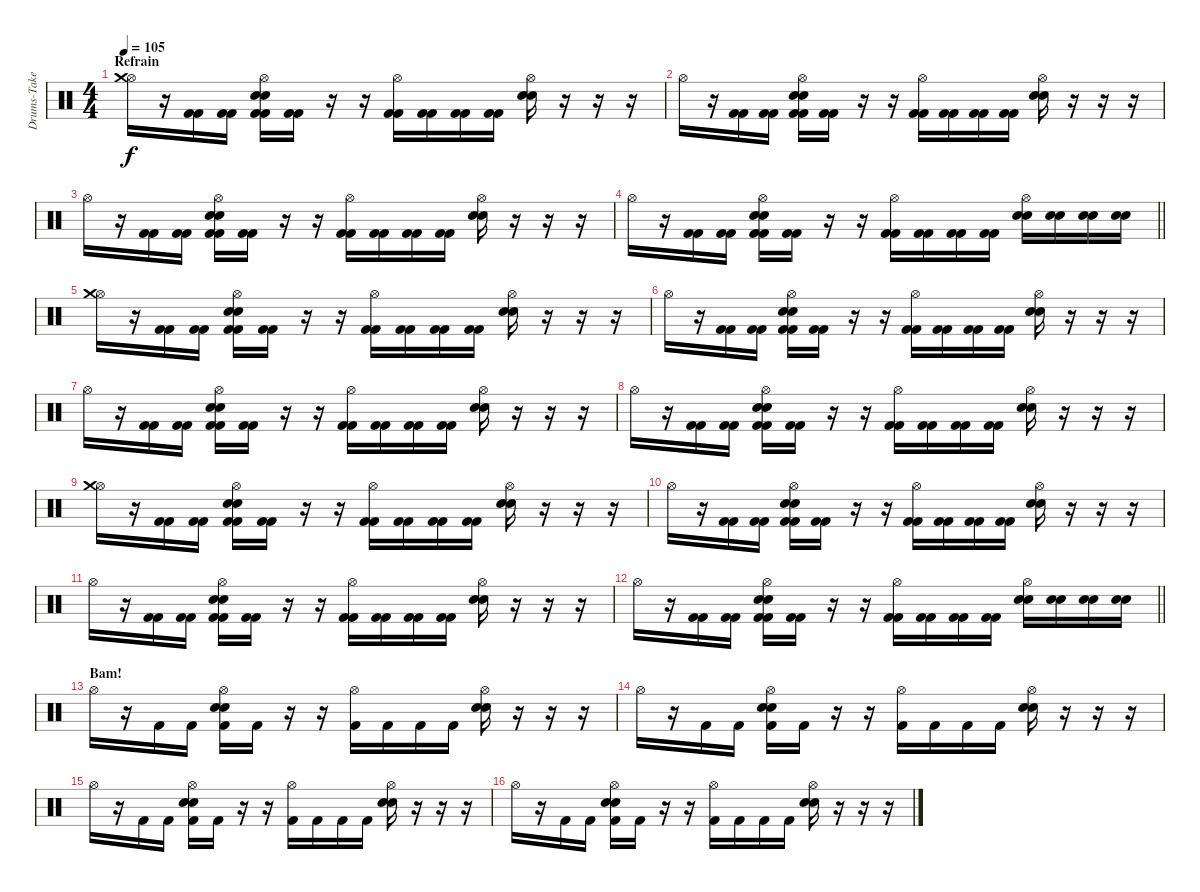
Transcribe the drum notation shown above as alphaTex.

\track ("Drums-Take the midi one!" "Drums-Take") {instrument percussion}
\staff {score}
\articulation defaults
\ts (4 4)
\section ("" "Refrain")
\tempo 105
\clef neutral
\ks c
("Hi-Hat (open)" "Crash medium (hit)").16{dy f} r.16 ("Kick (hit) 2" "Kick (hit) 2").16 ("Kick (hit) 2" "Kick (hit) 2").16 ("Kick (hit) 2" "Kick (hit) 2" "Hi-Hat (open)" "Electric Snare (hit)" "Electric Snare (hit)").16 ("Kick (hit) 2" "Kick (hit) 2").16 r.16 r.16 ("Kick (hit) 2" "Kick (hit) 2" "Hi-Hat (open)").16 ("Kick (hit) 2" "Kick (hit) 2").16 ("Kick (hit) 2" "Kick (hit) 2").16 ("Kick (hit) 2" "Kick (hit) 2").16 ("Hi-Hat (open)" "Electric Snare (hit)" "Electric Snare (hit)").16 r.16 r.16 r.16 |
"Hi-Hat (open)".16 r.16 ("Kick (hit) 2" "Kick (hit) 2").16 ("Kick (hit) 2" "Kick (hit) 2").16 ("Kick (hit) 2" "Kick (hit) 2" "Hi-Hat (open)" "Electric Snare (hit)" "Electric Snare (hit)").16 ("Kick (hit) 2" "Kick (hit) 2").16 r.16 r.16 ("Kick (hit) 2" "Kick (hit) 2" "Hi-Hat (open)").16 ("Kick (hit) 2" "Kick (hit) 2").16 ("Kick (hit) 2" "Kick (hit) 2").16 ("Kick (hit) 2" "Kick (hit) 2").16 ("Hi-Hat (open)" "Electric Snare (hit)" "Electric Snare (hit)").16 r.16 r.16 r.16 |
"Hi-Hat (open)".16 r.16 ("Kick (hit) 2" "Kick (hit) 2").16 ("Kick (hit) 2" "Kick (hit) 2").16 ("Kick (hit) 2" "Kick (hit) 2" "Hi-Hat (open)" "Electric Snare (hit)" "Electric Snare (hit)").16 ("Kick (hit) 2" "Kick (hit) 2").16 r.16 r.16 ("Kick (hit) 2" "Kick (hit) 2" "Hi-Hat (open)").16 ("Kick (hit) 2" "Kick (hit) 2").16 ("Kick (hit) 2" "Kick (hit) 2").16 ("Kick (hit) 2" "Kick (hit) 2").16 ("Hi-Hat (open)" "Electric Snare (hit)" "Electric Snare (hit)").16 r.16 r.16 r.16 |
\barLineRight lightlight "Hi-Hat (open)".16
r.16 ("Kick (hit) 2" "Kick (hit) 2").16 ("Kick (hit) 2" "Kick (hit) 2").16 ("Kick (hit) 2" "Kick (hit) 2" "Hi-Hat (open)" "Electric Snare (hit)" "Electric Snare (hit)").16 ("Kick (hit) 2" "Kick (hit) 2").16 r.16 r.16 ("Kick (hit) 2" "Kick (hit) 2" "Hi-Hat (open)").16 ("Kick (hit) 2" "Kick (hit) 2").16 ("Kick (hit) 2" "Kick (hit) 2").16 ("Kick (hit) 2" "Kick (hit) 2").16 ("Hi-Hat (open)" "Snare (hit) 2" "Snare (hit) 2").16 ("Snare (hit) 2" "Snare (hit) 2").16 ("Snare (hit) 2" "Snare (hit) 2").16 ("Snare (hit) 2" "Snare (hit) 2").16 |
("Hi-Hat (open)" "Crash medium (hit)").16 r.16 ("Kick (hit) 2" "Kick (hit) 2").16 ("Kick (hit) 2" "Kick (hit) 2").16 ("Kick (hit) 2" "Kick (hit) 2" "Hi-Hat (open)" "Electric Snare (hit)" "Electric Snare (hit)").16 ("Kick (hit) 2" "Kick (hit) 2").16 r.16 r.16 ("Kick (hit) 2" "Kick (hit) 2" "Hi-Hat (open)").16 ("Kick (hit) 2" "Kick (hit) 2").16 ("Kick (hit) 2" "Kick (hit) 2").16 ("Kick (hit) 2" "Kick (hit) 2").16 ("Hi-Hat (open)" "Electric Snare (hit)" "Electric Snare (hit)").16 r.16 r.16 r.16 |
"Hi-Hat (open)".16 r.16 ("Kick (hit) 2" "Kick (hit) 2").16 ("Kick (hit) 2" "Kick (hit) 2").16 ("Kick (hit) 2" "Kick (hit) 2" "Hi-Hat (open)" "Electric Snare (hit)" "Electric Snare (hit)").16 ("Kick (hit) 2" "Kick (hit) 2").16 r.16 r.16 ("Kick (hit) 2" "Kick (hit) 2" "Hi-Hat (open)").16 ("Kick (hit) 2" "Kick (hit) 2").16 ("Kick (hit) 2" "Kick (hit) 2").16 ("Kick (hit) 2" "Kick (hit) 2").16 ("Hi-Hat (open)" "Electric Snare (hit)" "Electric Snare (hit)").16 r.16 r.16 r.16 |
"Hi-Hat (open)".16 r.16 ("Kick (hit) 2" "Kick (hit) 2").16 ("Kick (hit) 2" "Kick (hit) 2").16 ("Kick (hit) 2" "Kick (hit) 2" "Hi-Hat (open)" "Electric Snare (hit)" "Electric Snare (hit)").16 ("Kick (hit) 2" "Kick (hit) 2").16 r.16 r.16 ("Kick (hit) 2" "Kick (hit) 2" "Hi-Hat (open)").16 ("Kick (hit) 2" "Kick (hit) 2").16 ("Kick (hit) 2" "Kick (hit) 2").16 ("Kick (hit) 2" "Kick (hit) 2").16 ("Hi-Hat (open)" "Electric Snare (hit)" "Electric Snare (hit)").16 r.16 r.16 r.16 |
"Hi-Hat (open)".16 r.16 ("Kick (hit) 2" "Kick (hit) 2").16 ("Kick (hit) 2" "Kick (hit) 2").16 ("Kick (hit) 2" "Kick (hit) 2" "Hi-Hat (open)" "Electric Snare (hit)" "Electric Snare (hit)").16 ("Kick (hit) 2" "Kick (hit) 2").16 r.16 r.16 ("Kick (hit) 2" "Kick (hit) 2" "Hi-Hat (open)").16 ("Kick (hit) 2" "Kick (hit) 2").16 ("Kick (hit) 2" "Kick (hit) 2").16 ("Kick (hit) 2" "Kick (hit) 2").16 ("Hi-Hat (open)" "Electric Snare (hit)" "Electric Snare (hit)").16 r.16 r.16 r.16 |
("Hi-Hat (open)" "Crash medium (hit)").16 r.16 ("Kick (hit) 2" "Kick (hit) 2").16 ("Kick (hit) 2" "Kick (hit) 2").16 ("Kick (hit) 2" "Kick (hit) 2" "Hi-Hat (open)" "Electric Snare (hit)" "Electric Snare (hit)").16 ("Kick (hit) 2" "Kick (hit) 2").16 r.16 r.16 ("Kick (hit) 2" "Kick (hit) 2" "Hi-Hat (open)").16 ("Kick (hit) 2" "Kick (hit) 2").16 ("Kick (hit) 2" "Kick (hit) 2").16 ("Kick (hit) 2" "Kick (hit) 2").16 ("Hi-Hat (open)" "Electric Snare (hit)" "Electric Snare (hit)").16 r.16 r.16 r.16 |
"Hi-Hat (open)".16 r.16 ("Kick (hit) 2" "Kick (hit) 2").16 ("Kick (hit) 2" "Kick (hit) 2").16 ("Kick (hit) 2" "Kick (hit) 2" "Hi-Hat (open)" "Electric Snare (hit)" "Electric Snare (hit)").16 ("Kick (hit) 2" "Kick (hit) 2").16 r.16 r.16 ("Kick (hit) 2" "Kick (hit) 2" "Hi-Hat (open)").16 ("Kick (hit) 2" "Kick (hit) 2").16 ("Kick (hit) 2" "Kick (hit) 2").16 ("Kick (hit) 2" "Kick (hit) 2").16 ("Hi-Hat (open)" "Electric Snare (hit)" "Electric Snare (hit)").16 r.16 r.16 r.16 |
"Hi-Hat (open)".16 r.16 ("Kick (hit) 2" "Kick (hit) 2").16 ("Kick (hit) 2" "Kick (hit) 2").16 ("Kick (hit) 2" "Kick (hit) 2" "Hi-Hat (open)" "Electric Snare (hit)" "Electric Snare (hit)").16 ("Kick (hit) 2" "Kick (hit) 2").16 r.16 r.16 ("Kick (hit) 2" "Kick (hit) 2" "Hi-Hat (open)").16 ("Kick (hit) 2" "Kick (hit) 2").16 ("Kick (hit) 2" "Kick (hit) 2").16 ("Kick (hit) 2" "Kick (hit) 2").16 ("Hi-Hat (open)" "Electric Snare (hit)" "Electric Snare (hit)").16 r.16 r.16 r.16 |
\barLineRight lightlight "Hi-Hat (open)".16
r.16 ("Kick (hit) 2" "Kick (hit) 2").16 ("Kick (hit) 2" "Kick (hit) 2").16 ("Kick (hit) 2" "Kick (hit) 2" "Hi-Hat (open)" "Electric Snare (hit)" "Electric Snare (hit)").16 ("Kick (hit) 2" "Kick (hit) 2").16 r.16 r.16 ("Kick (hit) 2" "Kick (hit) 2" "Hi-Hat (open)").16 ("Kick (hit) 2" "Kick (hit) 2").16 ("Kick (hit) 2" "Kick (hit) 2").16 ("Kick (hit) 2" "Kick (hit) 2").16 ("Hi-Hat (open)" "Snare (hit) 2" "Snare (hit) 2").16 ("Snare (hit) 2" "Snare (hit) 2").16 ("Snare (hit) 2" "Snare (hit) 2").16 ("Snare (hit) 2" "Snare (hit) 2").16 |
\section ("" "Bam!")
"Hi-Hat (open)".16 r.16 "Kick (hit) 2".16 "Kick (hit) 2".16 ("Kick (hit) 2" "Hi-Hat (open)" "Snare (hit) 2" "Snare (hit) 2").16 "Kick (hit) 2".16 r.16 r.16 ("Kick (hit) 2" "Hi-Hat (open)").16 "Kick (hit) 2".16 "Kick (hit) 2".16 "Kick (hit) 2".16 ("Hi-Hat (open)" "Snare (hit) 2" "Snare (hit) 2").16 r.16 r.16 r.16 |
"Hi-Hat (open)".16 r.16 "Kick (hit) 2".16 "Kick (hit) 2".16 ("Kick (hit) 2" "Hi-Hat (open)" "Snare (hit) 2" "Snare (hit) 2").16 "Kick (hit) 2".16 r.16 r.16 ("Kick (hit) 2" "Hi-Hat (open)").16 "Kick (hit) 2".16 "Kick (hit) 2".16 "Kick (hit) 2".16 ("Hi-Hat (open)" "Snare (hit) 2" "Snare (hit) 2").16 r.16 r.16 r.16 |
"Hi-Hat (open)".16 r.16 "Kick (hit) 2".16 "Kick (hit) 2".16 ("Kick (hit) 2" "Hi-Hat (open)" "Snare (hit) 2" "Snare (hit) 2").16 "Kick (hit) 2".16 r.16 r.16 ("Kick (hit) 2" "Hi-Hat (open)").16 "Kick (hit) 2".16 "Kick (hit) 2".16 "Kick (hit) 2".16 ("Hi-Hat (open)" "Snare (hit) 2" "Snare (hit) 2").16 r.16 r.16 r.16 |
"Hi-Hat (open)".16 r.16 "Kick (hit) 2".16 "Kick (hit) 2".16 ("Kick (hit) 2" "Hi-Hat (open)" "Snare (hit) 2" "Snare (hit) 2").16 "Kick (hit) 2".16 r.16 r.16 ("Kick (hit) 2" "Hi-Hat (open)").16 "Kick (hit) 2".16 "Kick (hit) 2".16 "Kick (hit) 2".16 ("Hi-Hat (open)" "Snare (hit) 2" "Snare (hit) 2").16 r.16 r.16 r.16
